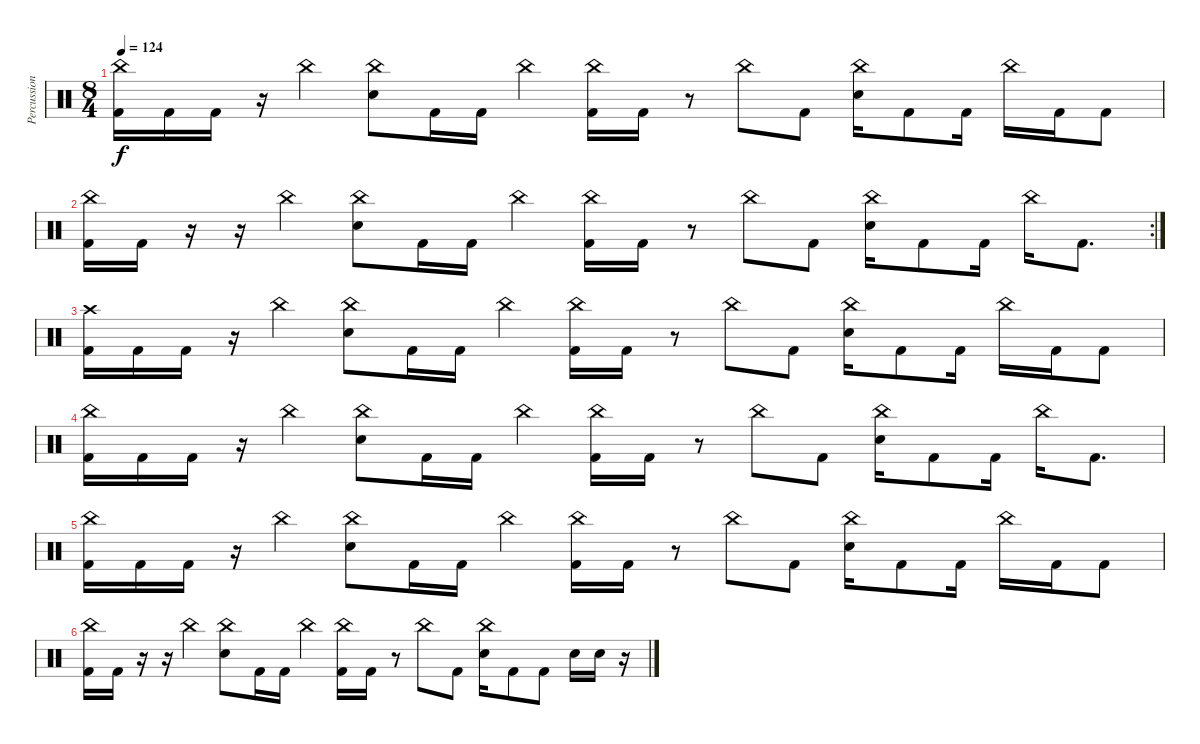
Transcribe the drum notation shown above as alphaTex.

\track ("Percussions" "Percussion") {instrument percussion}
\staff {score}
\articulation defaults
\ts (8 4)
\tempo 124
\clef neutral
\ks c
("China (hit)" "Kick (hit) 2").16{dy f} "Kick (hit) 2".16 "Kick (hit) 2".16 r.16 "China (hit)".4 ("China (hit)" "Snare (hit) 2").8 "Kick (hit) 2".16 "Kick (hit) 2".16 "China (hit)".4 ("China (hit)" "Kick (hit) 2").16 "Kick (hit) 2".16 r.8 "China (hit)".8 "Kick (hit) 2".8 ("China (hit)" "Snare (hit) 2").16 "Kick (hit) 2".8 "Kick (hit) 2".16 "China (hit)".16 "Kick (hit) 2".16 "Kick (hit) 2".8 |
\rc 2
("China (hit)" "Kick (hit) 2").16 "Kick (hit) 2".16 r.16 r.16 "China (hit)".4 ("China (hit)" "Snare (hit) 2").8 "Kick (hit) 2".16 "Kick (hit) 2".16 "China (hit)".4 ("China (hit)" "Kick (hit) 2").16 "Kick (hit) 2".16 r.8 "China (hit)".8 "Kick (hit) 2".8 ("China (hit)" "Snare (hit) 2").16 "Kick (hit) 2".8 "Kick (hit) 2".16 "China (hit)".16 "Kick (hit) 2".8{d} |
("Crash high (hit)" "Kick (hit) 2").16 "Kick (hit) 2".16 "Kick (hit) 2".16 r.16 "China (hit)".4 ("China (hit)" "Snare (hit) 2").8 "Kick (hit) 2".16 "Kick (hit) 2".16 "China (hit)".4 ("China (hit)" "Kick (hit) 2").16 "Kick (hit) 2".16 r.8 "China (hit)".8 "Kick (hit) 2".8 ("China (hit)" "Snare (hit) 2").16 "Kick (hit) 2".8 "Kick (hit) 2".16 "China (hit)".16 "Kick (hit) 2".16 "Kick (hit) 2".8 |
("China (hit)" "Kick (hit) 2").16 "Kick (hit) 2".16 "Kick (hit) 2".16 r.16 "China (hit)".4 ("China (hit)" "Snare (hit) 2").8 "Kick (hit) 2".16 "Kick (hit) 2".16 "China (hit)".4 ("China (hit)" "Kick (hit) 2").16 "Kick (hit) 2".16 r.8 "China (hit)".8 "Kick (hit) 2".8 ("China (hit)" "Snare (hit) 2").16 "Kick (hit) 2".8 "Kick (hit) 2".16 "China (hit)".16 "Kick (hit) 2".8{d} |
("China (hit)" "Kick (hit) 2").16 "Kick (hit) 2".16 "Kick (hit) 2".16 r.16 "China (hit)".4 ("China (hit)" "Snare (hit) 2").8 "Kick (hit) 2".16 "Kick (hit) 2".16 "China (hit)".4 ("China (hit)" "Kick (hit) 2").16 "Kick (hit) 2".16 r.8 "China (hit)".8 "Kick (hit) 2".8 ("China (hit)" "Snare (hit) 2").16 "Kick (hit) 2".8 "Kick (hit) 2".16 "China (hit)".16 "Kick (hit) 2".16 "Kick (hit) 2".8 |
("China (hit)" "Kick (hit) 2").16 "Kick (hit) 2".16 r.16 r.16 "China (hit)".4 ("China (hit)" "Snare (hit) 2").8 "Kick (hit) 2".16 "Kick (hit) 2".16 "China (hit)".4 ("China (hit)" "Kick (hit) 2").16 "Kick (hit) 2".16 r.8 "China (hit)".8 "Kick (hit) 2".8 ("China (hit)" "Snare (hit) 2").16 "Kick (hit) 2".8 "Kick (hit) 2".8 "Snare (hit) 2".16 "Snare (hit) 2".16 r.16
